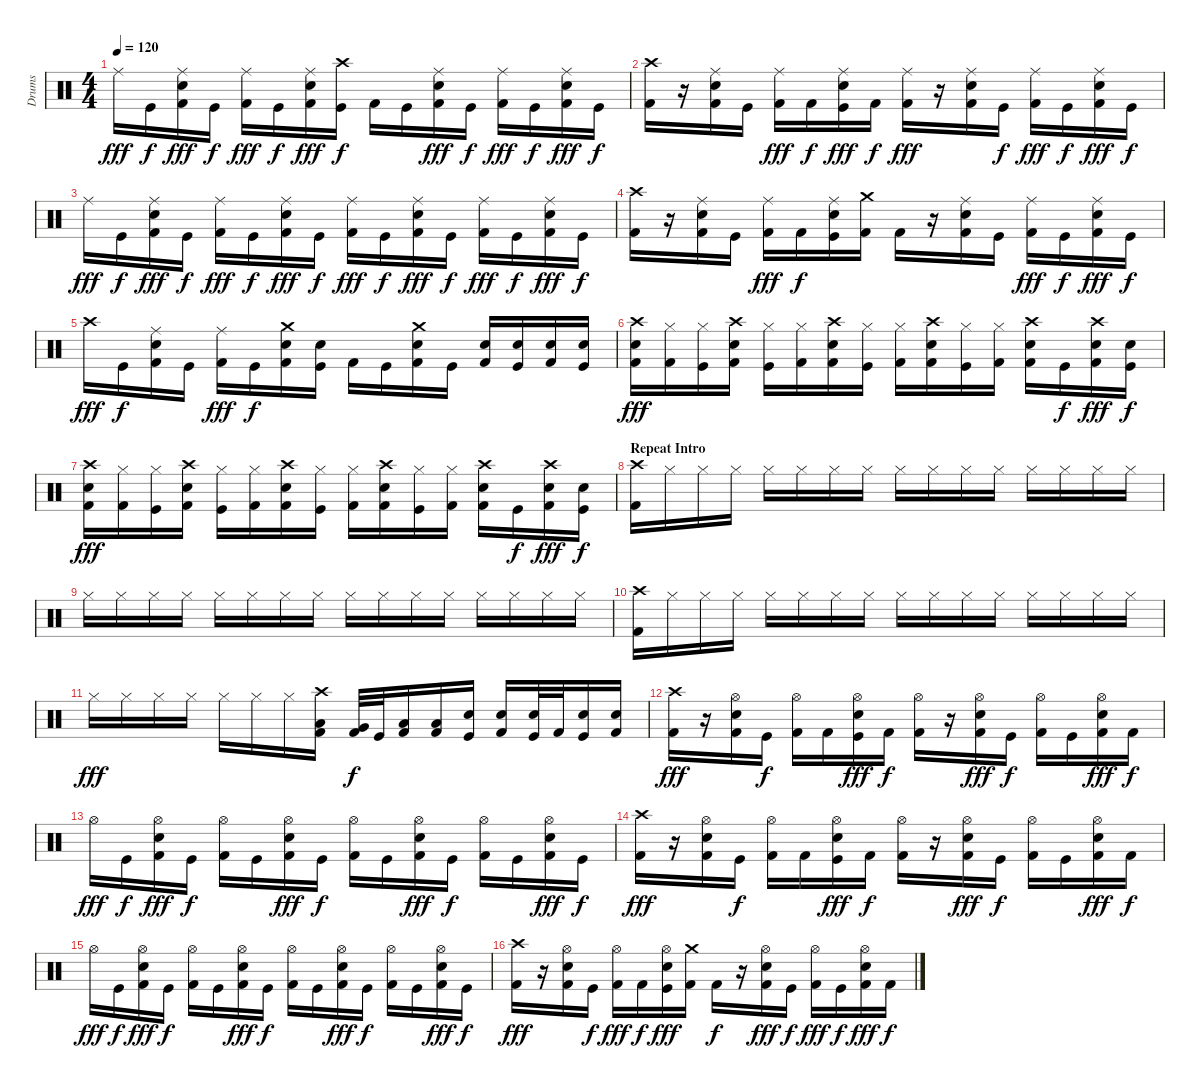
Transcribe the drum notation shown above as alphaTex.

\track ("Drums" "Drums") {instrument percussion}
\staff {score}
\articulation defaults
\ts (4 4)
\tempo 120
\clef neutral
\ks c "Ride (middle)".16{dy fff} "Kick (hit)".16{dy f}
("Ride (middle)" "Snare (hit) 2" "Kick (hit) 2").16{dy fff} "Kick (hit)".16{dy f} ("Ride (middle)" "Kick (hit) 2").16{dy fff} "Kick (hit)".16{dy f} ("Ride (middle)" "Snare (hit) 2" "Kick (hit) 2").16{dy fff} ("Crash high (hit)" "Kick (hit)").16{dy f} "Kick (hit) 2".16 "Kick (hit)".16 ("Ride (middle)" "Snare (hit) 2" "Kick (hit) 2").16{dy fff} "Kick (hit)".16{dy f} ("Ride (middle)" "Kick (hit) 2").16{dy fff} "Kick (hit)".16{dy f} ("Ride (middle)" "Snare (hit) 2" "Kick (hit) 2").16{dy fff} "Kick (hit)".16{dy f} |
("Crash high (hit)" "Kick (hit) 2").16 r.16 ("Ride (middle)" "Snare (hit) 2" "Kick (hit) 2").16 "Kick (hit)".16 ("Ride (middle)" "Kick (hit) 2").16{dy fff} "Kick (hit) 2".16{dy f} ("Ride (middle)" "Snare (hit) 2" "Kick (hit)").16{dy fff} "Kick (hit) 2".16{dy f} ("Ride (middle)" "Kick (hit) 2").16{dy fff} r.16 ("Ride (middle)" "Snare (hit) 2" "Kick (hit) 2").16 "Kick (hit)".16{dy f} ("Ride (middle)" "Kick (hit) 2").16{dy fff} "Kick (hit)".16{dy f} ("Ride (middle)" "Snare (hit) 2" "Kick (hit) 2").16{dy fff} "Kick (hit)".16{dy f} |
"Ride (middle)".16{dy fff} "Kick (hit)".16{dy f} ("Ride (middle)" "Snare (hit) 2" "Kick (hit) 2").16{dy fff} "Kick (hit)".16{dy f} ("Ride (middle)" "Kick (hit) 2").16{dy fff} "Kick (hit)".16{dy f} ("Ride (middle)" "Snare (hit) 2" "Kick (hit) 2").16{dy fff} "Kick (hit)".16{dy f} ("Ride (middle)" "Kick (hit) 2").16{dy fff} "Kick (hit)".16{dy f} ("Ride (middle)" "Snare (hit) 2" "Kick (hit) 2").16{dy fff} "Kick (hit)".16{dy f} ("Ride (middle)" "Kick (hit) 2").16{dy fff} "Kick (hit)".16{dy f} ("Ride (middle)" "Snare (hit) 2" "Kick (hit) 2").16{dy fff} "Kick (hit)".16{dy f} |
("Crash high (hit)" "Kick (hit) 2").16 r.16 ("Ride (middle)" "Snare (hit) 2" "Kick (hit) 2").16 "Kick (hit)".16 ("Ride (middle)" "Kick (hit) 2").16{dy fff} "Kick (hit) 2".16{dy f} ("Ride (middle)" "Snare (hit) 2" "Kick (hit)").16 ("Crash medium (hit)" "Kick (hit) 2").16 "Kick (hit) 2".16 r.16 ("Ride (middle)" "Snare (hit) 2" "Kick (hit) 2").16 "Kick (hit)".16 ("Ride (middle)" "Kick (hit) 2").16{dy fff} "Kick (hit)".16{dy f} ("Ride (middle)" "Snare (hit) 2" "Kick (hit) 2").16{dy fff} "Kick (hit)".16{dy f} |
"Crash high (hit)".16{dy fff} "Kick (hit)".16{dy f} ("Ride (middle)" "Snare (hit) 2" "Kick (hit) 2").16 "Kick (hit)".16 ("Ride (middle)" "Kick (hit) 2").16{dy fff} "Kick (hit)".16{dy f} ("Crash medium (hit)" "Snare (hit) 2" "Kick (hit) 2").16 ("Snare (hit) 2" "Kick (hit)").16 "Kick (hit) 2".16 "Kick (hit)".16 ("Crash medium (hit)" "Snare (hit) 2" "Kick (hit) 2").16 "Kick (hit)".16 ("Snare (hit) 2" "Kick (hit) 2").16 ("Snare (hit) 2" "Kick (hit)").16 ("Snare (hit) 2" "Kick (hit) 2").16 ("Snare (hit) 2" "Kick (hit)").16 |
("Crash high (hit)" "Snare (hit) 2" "Kick (hit) 2").16{dy fff} ("Hi-Hat (closed)" "Kick (hit) 2").16 ("Hi-Hat (closed)" "Kick (hit)").16 ("Crash high (hit)" "Snare (hit) 2" "Kick (hit) 2").16 ("Hi-Hat (closed)" "Kick (hit)").16 ("Hi-Hat (closed)" "Kick (hit) 2").16 ("Crash high (hit)" "Snare (hit) 2" "Kick (hit) 2").16 ("Hi-Hat (closed)" "Kick (hit)").16 ("Hi-Hat (closed)" "Kick (hit) 2").16 ("Crash high (hit)" "Snare (hit) 2" "Kick (hit) 2").16 ("Hi-Hat (closed)" "Kick (hit)").16 ("Hi-Hat (closed)" "Kick (hit) 2").16 ("Crash high (hit)" "Snare (hit) 2" "Kick (hit) 2").16 "Kick (hit)".16{dy f} ("Crash high (hit)" "Snare (hit) 2" "Kick (hit) 2").16{dy fff} ("Snare (hit) 2" "Kick (hit)").16{dy f} |
("Crash high (hit)" "Snare (hit) 2" "Kick (hit) 2").16{dy fff} ("Hi-Hat (closed)" "Kick (hit) 2").16 ("Hi-Hat (closed)" "Kick (hit)").16 ("Crash high (hit)" "Snare (hit) 2" "Kick (hit) 2").16 ("Hi-Hat (closed)" "Kick (hit)").16 ("Hi-Hat (closed)" "Kick (hit) 2").16 ("Crash high (hit)" "Snare (hit) 2" "Kick (hit) 2").16 ("Hi-Hat (closed)" "Kick (hit)").16 ("Hi-Hat (closed)" "Kick (hit) 2").16 ("Crash high (hit)" "Snare (hit) 2" "Kick (hit) 2").16 ("Hi-Hat (closed)" "Kick (hit)").16 ("Hi-Hat (closed)" "Kick (hit) 2").16 ("Crash high (hit)" "Snare (hit) 2" "Kick (hit) 2").16 "Kick (hit)".16{dy f} ("Crash high (hit)" "Snare (hit) 2" "Kick (hit) 2").16{dy fff} ("Snare (hit) 2" "Kick (hit)").16{dy f} |
\section ("" "Repeat Intro")
("Crash high (hit)" "Kick (hit) 2").16 "Hi-Hat (closed)".16 "Hi-Hat (closed)".16 "Hi-Hat (closed)".16 "Hi-Hat (closed)".16 "Hi-Hat (closed)".16 "Hi-Hat (closed)".16 "Hi-Hat (closed)".16 "Hi-Hat (closed)".16 "Hi-Hat (closed)".16 "Hi-Hat (closed)".16 "Hi-Hat (closed)".16 "Hi-Hat (closed)".16 "Hi-Hat (closed)".16 "Hi-Hat (closed)".16 "Hi-Hat (closed)".16 |
"Hi-Hat (closed)".16 "Hi-Hat (closed)".16 "Hi-Hat (closed)".16 "Hi-Hat (closed)".16 "Hi-Hat (closed)".16 "Hi-Hat (closed)".16 "Hi-Hat (closed)".16 "Hi-Hat (closed)".16 "Hi-Hat (closed)".16 "Hi-Hat (closed)".16 "Hi-Hat (closed)".16 "Hi-Hat (closed)".16 "Hi-Hat (closed)".16 "Hi-Hat (closed)".16 "Hi-Hat (closed)".16 "Hi-Hat (closed)".16 |
("Crash high (hit)" "Kick (hit) 2").16 "Hi-Hat (closed)".16 "Hi-Hat (closed)".16 "Hi-Hat (closed)".16 "Hi-Hat (closed)".16 "Hi-Hat (closed)".16 "Hi-Hat (closed)".16 "Hi-Hat (closed)".16 "Hi-Hat (closed)".16 "Hi-Hat (closed)".16 "Hi-Hat (closed)".16 "Hi-Hat (closed)".16 "Hi-Hat (closed)".16 "Hi-Hat (closed)".16 "Hi-Hat (closed)".16 "Hi-Hat (closed)".16 |
"Hi-Hat (closed)".16{dy fff} "Hi-Hat (closed)".16 "Hi-Hat (closed)".16 "Hi-Hat (closed)".16 "Hi-Hat (closed)".16 "Hi-Hat (closed)".16 "Hi-Hat (closed)".16 ("Crash high (hit)" "Low Tom (hit)" "Kick (hit) 2").16 ("Very Low Tom (hit)" "Kick (hit) 2").32{dy f} "Kick (hit)".32 ("Low Floor Tom (hit)" "Kick (hit) 2").16 ("Low Tom (hit)" "Kick (hit) 2").16 ("Snare (hit) 2" "Kick (hit)").16 ("Snare (hit) 2" "Kick (hit) 2").16 ("Snare (hit) 2" "Kick (hit)").32 "Kick (hit) 2".32 ("Snare (hit) 2" "Kick (hit)").16 ("Snare (hit) 2" "Kick (hit) 2").16 |
("Crash high (hit)" "Kick (hit) 2").16{dy fff} r.16 ("Hi-Hat (open)" "Snare (hit) 2" "Kick (hit) 2").16 "Kick (hit)".16{dy f} ("Hi-Hat (open)" "Kick (hit) 2").16 "Kick (hit) 2".16 ("Hi-Hat (open)" "Snare (hit) 2" "Kick (hit)").16{dy fff} "Kick (hit) 2".16{dy f} ("Hi-Hat (open)" "Kick (hit) 2").16 r.16 ("Hi-Hat (open)" "Snare (hit) 2" "Kick (hit) 2").16{dy fff} "Kick (hit)".16{dy f} ("Hi-Hat (open)" "Kick (hit) 2").16 "Kick (hit)".16 ("Hi-Hat (open)" "Snare (hit) 2" "Kick (hit) 2").16{dy fff} "Kick (hit) 2".16{dy f} |
"Hi-Hat (open)".16{dy fff} "Kick (hit)".16{dy f} ("Hi-Hat (open)" "Snare (hit) 2" "Kick (hit) 2").16{dy fff} "Kick (hit)".16{dy f} ("Hi-Hat (open)" "Kick (hit) 2").16 "Kick (hit)".16 ("Hi-Hat (open)" "Snare (hit) 2" "Kick (hit) 2").16{dy fff} "Kick (hit)".16{dy f} ("Hi-Hat (open)" "Kick (hit) 2").16 "Kick (hit)".16 ("Hi-Hat (open)" "Snare (hit) 2" "Kick (hit) 2").16{dy fff} "Kick (hit)".16{dy f} ("Hi-Hat (open)" "Kick (hit) 2").16 "Kick (hit)".16 ("Hi-Hat (open)" "Snare (hit) 2" "Kick (hit) 2").16{dy fff} "Kick (hit)".16{dy f} |
("Crash high (hit)" "Kick (hit) 2").16{dy fff} r.16 ("Hi-Hat (open)" "Snare (hit) 2" "Kick (hit) 2").16 "Kick (hit)".16{dy f} ("Hi-Hat (open)" "Kick (hit) 2").16 "Kick (hit) 2".16 ("Hi-Hat (open)" "Snare (hit) 2" "Kick (hit)").16{dy fff} "Kick (hit) 2".16{dy f} ("Hi-Hat (open)" "Kick (hit) 2").16 r.16 ("Hi-Hat (open)" "Snare (hit) 2" "Kick (hit) 2").16{dy fff} "Kick (hit)".16{dy f} ("Hi-Hat (open)" "Kick (hit) 2").16 "Kick (hit)".16 ("Hi-Hat (open)" "Snare (hit) 2" "Kick (hit) 2").16{dy fff} "Kick (hit) 2".16{dy f} |
"Hi-Hat (open)".16{dy fff} "Kick (hit)".16{dy f} ("Hi-Hat (open)" "Snare (hit) 2" "Kick (hit) 2").16{dy fff} "Kick (hit)".16{dy f} ("Hi-Hat (open)" "Kick (hit) 2").16 "Kick (hit)".16 ("Hi-Hat (open)" "Snare (hit) 2" "Kick (hit) 2").16{dy fff} "Kick (hit)".16{dy f} ("Hi-Hat (open)" "Kick (hit) 2").16 "Kick (hit)".16 ("Hi-Hat (open)" "Snare (hit) 2" "Kick (hit) 2").16{dy fff} "Kick (hit)".16{dy f} ("Hi-Hat (open)" "Kick (hit) 2").16 "Kick (hit)".16 ("Hi-Hat (open)" "Snare (hit) 2" "Kick (hit) 2").16{dy fff} "Kick (hit)".16{dy f} |
("Crash high (hit)" "Kick (hit) 2").16{dy fff} r.16 ("Hi-Hat (open)" "Snare (hit) 2" "Kick (hit) 2").16 "Kick (hit)".16{dy f} ("Hi-Hat (open)" "Kick (hit) 2").16{dy fff} "Kick (hit) 2".16{dy f} ("Hi-Hat (open)" "Snare (hit) 2" "Kick (hit)").16{dy fff} ("Crash medium (hit)" "Kick (hit) 2").16 "Kick (hit) 2".16{dy f} r.16 ("Hi-Hat (open)" "Snare (hit) 2" "Kick (hit) 2").16{dy fff} "Kick (hit)".16{dy f} ("Hi-Hat (open)" "Kick (hit) 2").16{dy fff} "Kick (hit)".16{dy f} ("Hi-Hat (open)" "Snare (hit) 2" "Kick (hit) 2").16{dy fff} "Kick (hit) 2".16{dy f}
